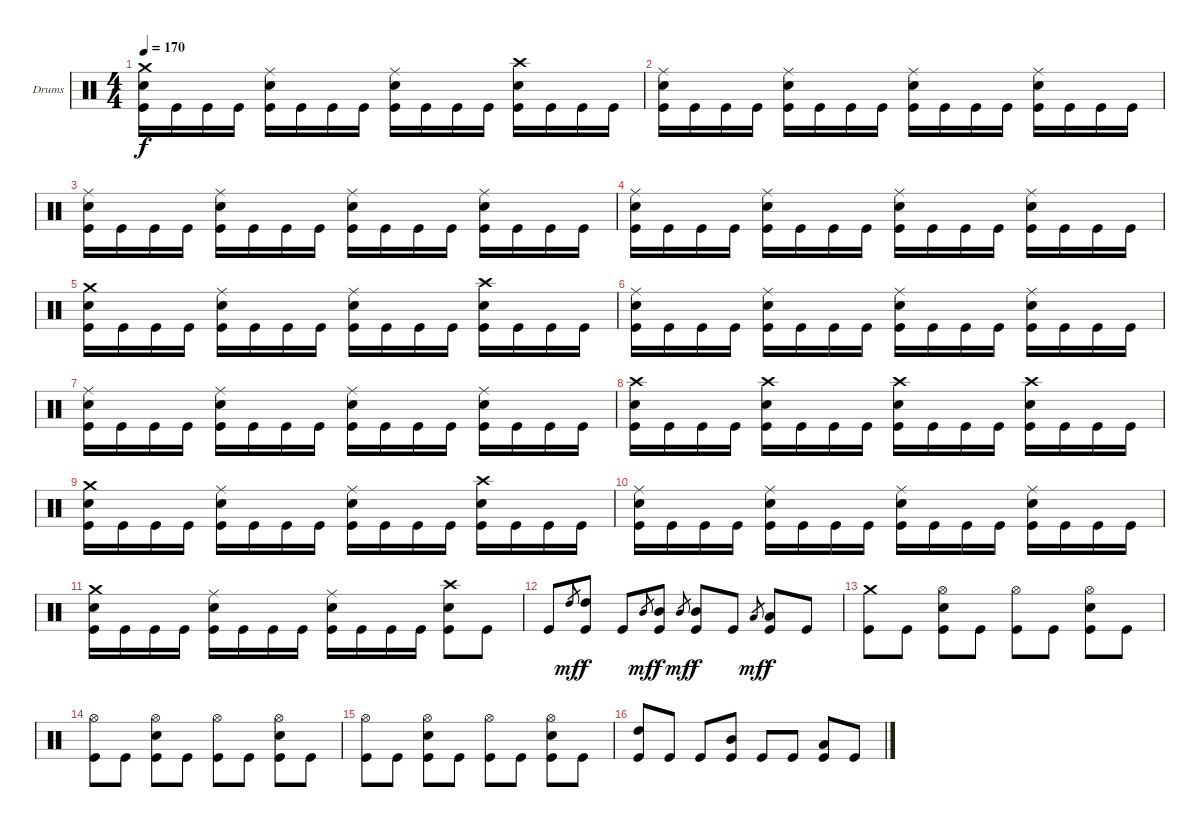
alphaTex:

\bracketExtendMode groupsimilarinstruments
\firstSystemTrackNameOrientation horizontal
\otherSystemsTrackNameOrientation horizontal
\track ("Дмитрий Кривенков" "Drums") {instrument percussion}
\staff {score}
\articulation defaults
\ts (4 4)
\tempo 170
\clef neutral
\ks c
("Crash medium (hit)" "Snare (hit) 2" "Kick (hit)").16{dy f} "Kick (hit)".16 "Kick (hit)".16 "Kick (hit)".16 ("Ride (middle)" "Snare (hit) 2" "Kick (hit)").16 "Kick (hit)".16 "Kick (hit)".16 "Kick (hit)".16 ("Ride (middle)" "Snare (hit) 2" "Kick (hit)").16 "Kick (hit)".16 "Kick (hit)".16 "Kick (hit)".16 ("Crash high (hit)" "Snare (hit) 2" "Kick (hit)").16 "Kick (hit)".16 "Kick (hit)".16 "Kick (hit)".16 |
("Ride (middle)" "Snare (hit) 2" "Kick (hit)").16 "Kick (hit)".16 "Kick (hit)".16 "Kick (hit)".16 ("Ride (middle)" "Snare (hit) 2" "Kick (hit)").16 "Kick (hit)".16 "Kick (hit)".16 "Kick (hit)".16 ("Ride (middle)" "Snare (hit) 2" "Kick (hit)").16 "Kick (hit)".16 "Kick (hit)".16 "Kick (hit)".16 ("Ride (middle)" "Snare (hit) 2" "Kick (hit)").16 "Kick (hit)".16 "Kick (hit)".16 "Kick (hit)".16 |
("Ride (middle)" "Snare (hit) 2" "Kick (hit)").16 "Kick (hit)".16 "Kick (hit)".16 "Kick (hit)".16 ("Ride (middle)" "Snare (hit) 2" "Kick (hit)").16 "Kick (hit)".16 "Kick (hit)".16 "Kick (hit)".16 ("Ride (middle)" "Snare (hit) 2" "Kick (hit)").16 "Kick (hit)".16 "Kick (hit)".16 "Kick (hit)".16 ("Ride (middle)" "Snare (hit) 2" "Kick (hit)").16 "Kick (hit)".16 "Kick (hit)".16 "Kick (hit)".16 |
("Ride (middle)" "Snare (hit) 2" "Kick (hit)").16 "Kick (hit)".16 "Kick (hit)".16 "Kick (hit)".16 ("Ride (middle)" "Snare (hit) 2" "Kick (hit)").16 "Kick (hit)".16 "Kick (hit)".16 "Kick (hit)".16 ("Ride (middle)" "Snare (hit) 2" "Kick (hit)").16 "Kick (hit)".16 "Kick (hit)".16 "Kick (hit)".16 ("Ride (middle)" "Snare (hit) 2" "Kick (hit)").16 "Kick (hit)".16 "Kick (hit)".16 "Kick (hit)".16 |
("Crash medium (hit)" "Snare (hit) 2" "Kick (hit)").16 "Kick (hit)".16 "Kick (hit)".16 "Kick (hit)".16 ("Ride (middle)" "Snare (hit) 2" "Kick (hit)").16 "Kick (hit)".16 "Kick (hit)".16 "Kick (hit)".16 ("Ride (middle)" "Snare (hit) 2" "Kick (hit)").16 "Kick (hit)".16 "Kick (hit)".16 "Kick (hit)".16 ("Crash high (hit)" "Snare (hit) 2" "Kick (hit)").16 "Kick (hit)".16 "Kick (hit)".16 "Kick (hit)".16 |
("Ride (middle)" "Snare (hit) 2" "Kick (hit)").16 "Kick (hit)".16 "Kick (hit)".16 "Kick (hit)".16 ("Ride (middle)" "Snare (hit) 2" "Kick (hit)").16 "Kick (hit)".16 "Kick (hit)".16 "Kick (hit)".16 ("Ride (middle)" "Snare (hit) 2" "Kick (hit)").16 "Kick (hit)".16 "Kick (hit)".16 "Kick (hit)".16 ("Ride (middle)" "Snare (hit) 2" "Kick (hit)").16 "Kick (hit)".16 "Kick (hit)".16 "Kick (hit)".16 |
("Ride (middle)" "Snare (hit) 2" "Kick (hit)").16 "Kick (hit)".16 "Kick (hit)".16 "Kick (hit)".16 ("Ride (middle)" "Snare (hit) 2" "Kick (hit)").16 "Kick (hit)".16 "Kick (hit)".16 "Kick (hit)".16 ("Ride (middle)" "Snare (hit) 2" "Kick (hit)").16 "Kick (hit)".16 "Kick (hit)".16 "Kick (hit)".16 ("Ride (middle)" "Snare (hit) 2" "Kick (hit)").16 "Kick (hit)".16 "Kick (hit)".16 "Kick (hit)".16 |
("Crash high (hit)" "Snare (hit) 2" "Kick (hit)").16 "Kick (hit)".16 "Kick (hit)".16 "Kick (hit)".16 ("Crash high (hit)" "Snare (hit) 2" "Kick (hit)").16 "Kick (hit)".16 "Kick (hit)".16 "Kick (hit)".16 ("Crash high (hit)" "Snare (hit) 2" "Kick (hit)").16 "Kick (hit)".16 "Kick (hit)".16 "Kick (hit)".16 ("Crash high (hit)" "Snare (hit) 2" "Kick (hit)").16 "Kick (hit)".16 "Kick (hit)".16 "Kick (hit)".16 |
("Crash medium (hit)" "Snare (hit) 2" "Kick (hit)").16 "Kick (hit)".16 "Kick (hit)".16 "Kick (hit)".16 ("Ride (middle)" "Snare (hit) 2" "Kick (hit)").16 "Kick (hit)".16 "Kick (hit)".16 "Kick (hit)".16 ("Ride (middle)" "Snare (hit) 2" "Kick (hit)").16 "Kick (hit)".16 "Kick (hit)".16 "Kick (hit)".16 ("Crash high (hit)" "Snare (hit) 2" "Kick (hit)").16 "Kick (hit)".16 "Kick (hit)".16 "Kick (hit)".16 |
("Ride (middle)" "Snare (hit) 2" "Kick (hit)").16 "Kick (hit)".16 "Kick (hit)".16 "Kick (hit)".16 ("Ride (middle)" "Snare (hit) 2" "Kick (hit)").16 "Kick (hit)".16 "Kick (hit)".16 "Kick (hit)".16 ("Ride (middle)" "Snare (hit) 2" "Kick (hit)").16 "Kick (hit)".16 "Kick (hit)".16 "Kick (hit)".16 ("Ride (middle)" "Snare (hit) 2" "Kick (hit)").16 "Kick (hit)".16 "Kick (hit)".16 "Kick (hit)".16 |
("Crash medium (hit)" "Snare (hit) 2" "Kick (hit)").16 "Kick (hit)".16 "Kick (hit)".16 "Kick (hit)".16 ("Ride (middle)" "Snare (hit) 2" "Kick (hit)").16 "Kick (hit)".16 "Kick (hit)".16 "Kick (hit)".16 ("Ride (middle)" "Snare (hit) 2" "Kick (hit)").16 "Kick (hit)".16 "Kick (hit)".16 "Kick (hit)".16 ("Crash high (hit)" "Snare (hit) 2" "Kick (hit)").8 "Kick (hit)".8 |
"Kick (hit)".8 "High Tom (hit)".8{gr dy mf} ("High Tom (hit)" "Kick (hit)").8{dy f} "Kick (hit)".8 "Mid Tom (hit)".8{gr dy mf} ("Mid Tom (hit)" "Kick (hit)").8{dy f} "Mid Tom (hit)".8{gr dy mf} ("Mid Tom (hit)" "Kick (hit)").8{dy f} "Kick (hit)".8 "Low Tom (hit)".8{gr dy mf} ("Low Tom (hit)" "Kick (hit)").8{dy f} "Kick (hit)".8 |
("Crash medium (hit)" "Kick (hit)").8 "Kick (hit)".8 ("Hi-Hat (open)" "Snare (hit) 2" "Kick (hit)").8 "Kick (hit)".8 ("Hi-Hat (open)" "Kick (hit)").8 "Kick (hit)".8 ("Hi-Hat (open)" "Snare (hit) 2" "Kick (hit)").8 "Kick (hit)".8 |
("Hi-Hat (open)" "Kick (hit)").8 "Kick (hit)".8 ("Hi-Hat (open)" "Snare (hit) 2" "Kick (hit)").8 "Kick (hit)".8 ("Hi-Hat (open)" "Kick (hit)").8 "Kick (hit)".8 ("Hi-Hat (open)" "Snare (hit) 2" "Kick (hit)").8 "Kick (hit)".8 |
("Hi-Hat (open)" "Kick (hit)").8 "Kick (hit)".8 ("Hi-Hat (open)" "Snare (hit) 2" "Kick (hit)").8 "Kick (hit)".8 ("Hi-Hat (open)" "Kick (hit)").8 "Kick (hit)".8 ("Hi-Hat (open)" "Snare (hit) 2" "Kick (hit)").8 "Kick (hit)".8 |
("High Tom (hit)" "Kick (hit)").8 "Kick (hit)".8 "Kick (hit)".8 ("Mid Tom (hit)" "Kick (hit)").8 "Kick (hit)".8 "Kick (hit)".8 ("Low Tom (hit)" "Kick (hit)").8 "Kick (hit)".8
